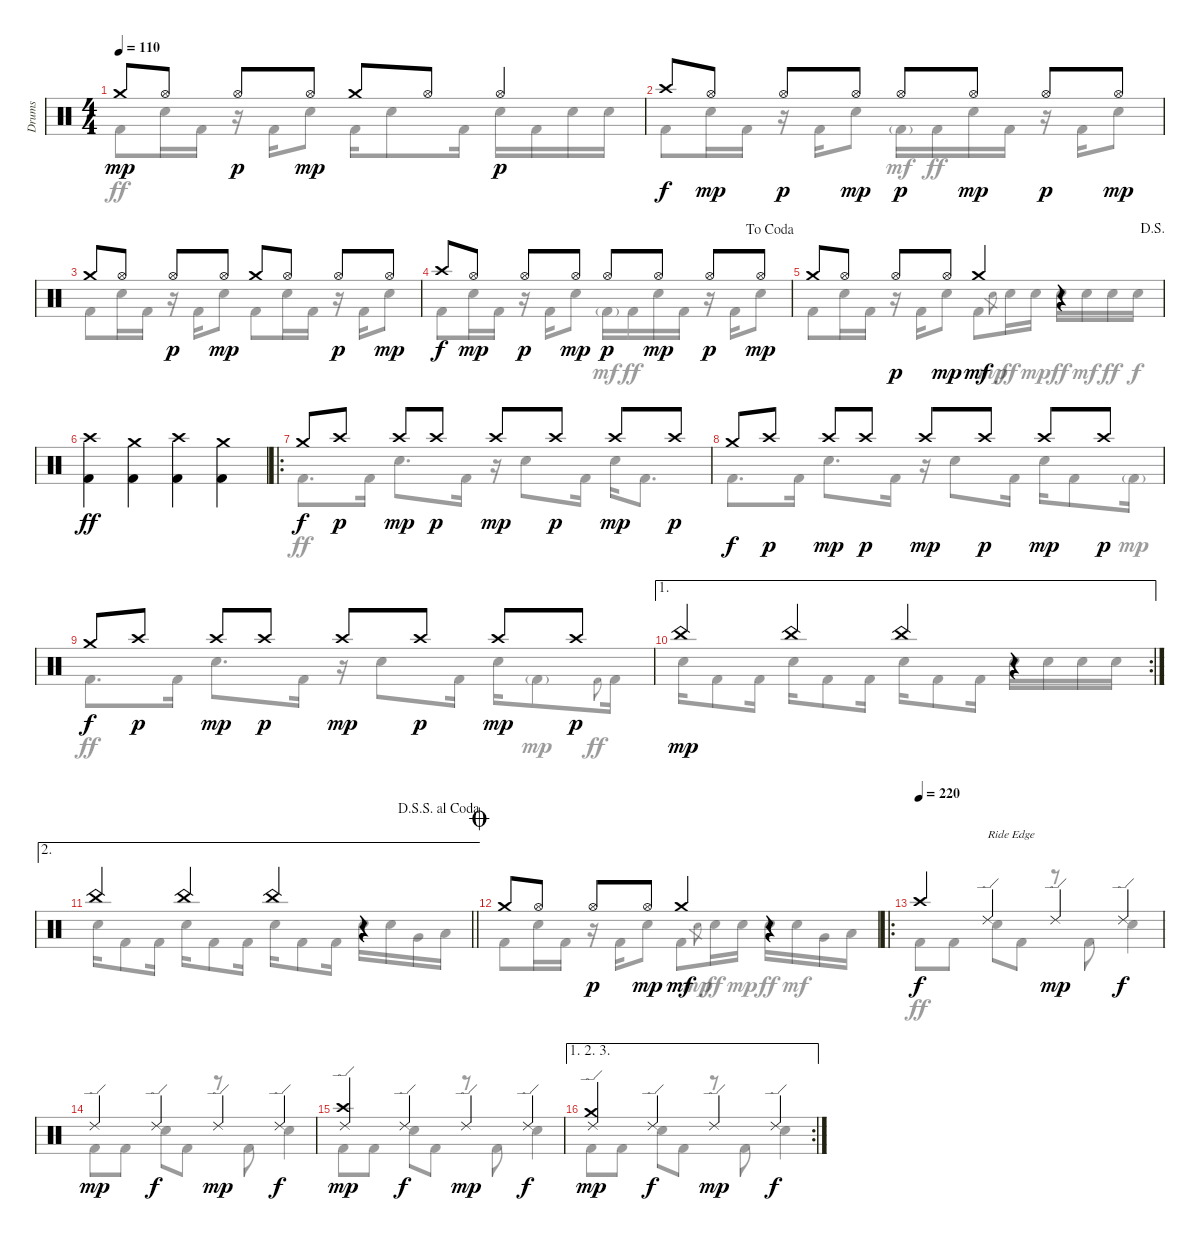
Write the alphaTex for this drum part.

\track ("Drums" "Drums") {instrument percussion}
\staff {score}
\articulation defaults
\voice
\ts (4 4)
\tempo 110
\clef neutral
\ks c "Crash medium (hit)".8{dy mp} "Hi-Hat (open)".8 "Hi-Hat (open)".8{dy p} "Hi-Hat (open)".8{dy mp} "Crash medium (hit)".8 "Hi-Hat (open)".8 "Hi-Hat (open)".4{dy p}
|
"Crash high (hit)".8{dy f} "Hi-Hat (open)".8{dy mp} "Hi-Hat (open)".8{dy p} "Hi-Hat (open)".8{dy mp} "Hi-Hat (open)".8{dy p} "Hi-Hat (open)".8{dy mp} "Hi-Hat (open)".8{dy p} "Hi-Hat (open)".8{dy mp} |
"Crash medium (hit)".8 "Hi-Hat (open)".8 "Hi-Hat (open)".8{dy p} "Hi-Hat (open)".8{dy mp} "Crash medium (hit)".8 "Hi-Hat (open)".8 "Hi-Hat (open)".8{dy p} "Hi-Hat (open)".8{dy mp} |
\jump dacoda "Crash high (hit)".8{dy f} "Hi-Hat (open)".8{dy mp} "Hi-Hat (open)".8{dy p} "Hi-Hat (open)".8{dy mp} "Hi-Hat (open)".8{dy p} "Hi-Hat (open)".8{dy mp} "Hi-Hat (open)".8{dy p} "Hi-Hat (open)".8{dy mp}
|
\jump dalsegno "Crash medium (hit)".8 "Hi-Hat (open)".8 "Hi-Hat (open)".8{dy p} "Hi-Hat (open)".8{dy mp} "Crash medium (hit)".4{dy mf}
r.4 |
("Crash high (hit)" "Kick (hit) 2").4{dy ff} ("Crash medium (hit)" "Kick (hit) 2").4 ("Crash high (hit)" "Kick (hit) 2").4 ("Crash medium (hit)" "Kick (hit) 2").4 |
\ro "Crash medium (hit)".8{dy f} "Crash high (hit)".8{dy p} "Crash high (hit)".8{dy mp} "Crash high (hit)".8{dy p} "Crash high (hit)".8{dy mp} "Crash high (hit)".8{dy p} "Crash high (hit)".8{dy mp} "Crash high (hit)".8{dy p}
|
"Crash medium (hit)".8{dy f} "Crash high (hit)".8{dy p} "Crash high (hit)".8{dy mp} "Crash high (hit)".8{dy p} "Crash high (hit)".8{dy mp} "Crash high (hit)".8{dy p} "Crash high (hit)".8{dy mp} "Crash high (hit)".8{dy p} |
"Crash medium (hit)".8{dy f} "Crash high (hit)".8{dy p} "Crash high (hit)".8{dy mp} "Crash high (hit)".8{dy p} "Crash high (hit)".8{dy mp} "Crash high (hit)".8{dy p} "Crash high (hit)".8{dy mp} "Crash high (hit)".8{dy p} |
\ae 1
\rc 2 "China (hit)".4{dy mp} "China (hit)".4 "China (hit)".4
r.4 |
\ae 2
\jump dalsegnosegnoalcoda
\barLineRight lightlight "China (hit)".4 "China (hit)".4 "China (hit)".4
r.4 |
\jump coda "Crash medium (hit)".8 "Hi-Hat (open)".8 "Hi-Hat (open)".8{dy p} "Hi-Hat (open)".8{dy mp} "Crash medium (hit)".4{dy mf}
r.4 |
\ro
\tempo (220)
"Crash high (hit)".4{dy f} "Ride (edge) 2".4{txt "Ride Edge"} "Ride (edge) 2".4{dy mp} "Ride (edge) 2".4{dy f} |
"Ride (edge) 2".4{dy mp} "Ride (edge) 2".4{dy f} "Ride (edge) 2".4{dy mp} "Ride (edge) 2".4{dy f} |
("Crash high (hit)" "Ride (edge) 2").4{dy mp} "Ride (edge) 2".4{dy f} "Ride (edge) 2".4{dy mp} "Ride (edge) 2".4{dy f} |
\ae (1 2 3)
\rc 2
("Crash medium (hit)" "Ride (edge) 2").4{dy mp} "Ride (edge) 2".4{dy f} "Ride (edge) 2".4{dy mp} "Ride (edge) 2".4{dy f}
\voice
\clef neutral
\ottava regular
\simile none
\ks c "Kick (hit) 2".8{dy ff} "Electric Snare (hit)".16 "Kick (hit) 2".16
r.16 "Kick (hit) 2".16 "Electric Snare (hit)".8 "Kick (hit) 2".16 "Electric Snare (hit)".8 "Kick (hit) 2".16 "Electric Snare (hit)".16 "Kick (hit) 2".16 "Electric Snare (hit)".16 "Electric Snare (hit)".16 |
"Kick (hit) 2".8 "Electric Snare (hit)".16 "Kick (hit) 2".16 r.16 "Kick (hit) 2".16 "Electric Snare (hit)".8 "Kick (hit) 2"{g}.16{dy mf} "Kick (hit) 2".16{dy ff} "Electric Snare (hit)".16 "Kick (hit) 2".16 r.16 "Kick (hit) 2".16 "Electric Snare (hit)".8 |
"Kick (hit) 2".8 "Electric Snare (hit)".16 "Kick (hit) 2".16 r.16 "Kick (hit) 2".16 "Electric Snare (hit)".8 "Kick (hit) 2".8 "Electric Snare (hit)".16 "Kick (hit) 2".16 r.16 "Kick (hit) 2".16 "Electric Snare (hit)".8 |
"Kick (hit) 2".8 "Electric Snare (hit)".16 "Kick (hit) 2".16 r.16 "Kick (hit) 2".16 "Electric Snare (hit)".8 "Kick (hit) 2"{g}.16{dy mf} "Kick (hit) 2".16{dy ff} "Electric Snare (hit)".16 "Kick (hit) 2".16 r.16 "Kick (hit) 2".16 "Electric Snare (hit)".8 |
"Kick (hit) 2".8 "Electric Snare (hit)".16 "Kick (hit) 2".16 r.16 "Kick (hit) 2".16 "Electric Snare (hit)".8 "Kick (hit) 2".8 "Electric Snare (hit)".8{gr dy mp} "Electric Snare (hit)".16{dy ff} "Electric Snare (hit)".16{dy mp} "Electric Snare (hit)".16{dy ff} "Electric Snare (hit)".16{dy mf} "Electric Snare (hit)".16{dy ff} "Electric Snare (hit)".16{dy f} |
|
"Kick (hit) 2".8{d dy ff} "Kick (hit) 2".16 "Electric Snare (hit)".8{d} "Kick (hit) 2".16 r.16 "Electric Snare (hit)".8 "Kick (hit) 2".16 "Electric Snare (hit)".16 "Kick (hit) 2".8{d} |
"Kick (hit) 2".8{d} "Kick (hit) 2".16 "Electric Snare (hit)".8{d} "Kick (hit) 2".16 r.16 "Electric Snare (hit)".8 "Kick (hit) 2".16 "Electric Snare (hit)".16 "Kick (hit) 2".8 "Kick (hit) 2"{g}.16{dy mp} |
"Kick (hit) 2".8{d dy ff} "Kick (hit) 2".16 "Electric Snare (hit)".8{d} "Kick (hit) 2".16 r.16 "Electric Snare (hit)".8 "Kick (hit) 2".16 "Electric Snare (hit)".16 "Kick (hit) 2"{g}.8{dy mp} "Kick (hit) 2".8{gr onbeat dy ff} "Kick (hit) 2".16 |
"Electric Snare (hit)".16 "Kick (hit) 2".8 "Kick (hit) 2".16 "Electric Snare (hit)".16 "Kick (hit) 2".8 "Kick (hit) 2".16 "Electric Snare (hit)".16 "Kick (hit) 2".8 "Kick (hit) 2".16 "Electric Snare (hit)".16 "Electric Snare (hit)".16 "Electric Snare (hit)".16 "Electric Snare (hit)".16 |
\barLineRight lightlight "Electric Snare (hit)".16 "Kick (hit) 2".8 "Kick (hit) 2".16 "Electric Snare (hit)".16 "Kick (hit) 2".8 "Kick (hit) 2".16 "Electric Snare (hit)".16 "Kick (hit) 2".8 "Kick (hit) 2".16 "Electric Snare (hit)".16 "Electric Snare (hit)".16 "Very Low Tom (hit)".16 "Low Floor Tom (hit)".16
|
"Kick (hit) 2".8 "Electric Snare (hit)".16 "Kick (hit) 2".16 r.16 "Kick (hit) 2".16 "Electric Snare (hit)".8 "Kick (hit) 2".8 "Electric Snare (hit)".8{gr dy mp} "Electric Snare (hit)".16{dy ff} "Electric Snare (hit)".16{dy mp} "Electric Snare (hit)".16{dy ff} "Electric Snare (hit)".16{dy mf} "Very Low Tom (hit)".16 "Low Floor Tom (hit)".16 |
"Kick (hit) 2".8{dy ff} "Kick (hit) 2".8 "Electric Snare (hit)".8 "Kick (hit) 2".8 r.8 "Kick (hit) 2".8 "Electric Snare (hit)".4 |
"Kick (hit) 2".8 "Kick (hit) 2".8 "Electric Snare (hit)".8 "Kick (hit) 2".8 r.8 "Kick (hit) 2".8 "Electric Snare (hit)".4 |
"Kick (hit) 2".8 "Kick (hit) 2".8 "Electric Snare (hit)".8 "Kick (hit) 2".8 r.8 "Kick (hit) 2".8 "Electric Snare (hit)".4 |
"Kick (hit) 2".8 "Kick (hit) 2".8 "Electric Snare (hit)".8 "Kick (hit) 2".8 r.8 "Kick (hit) 2".8 "Electric Snare (hit)".4
